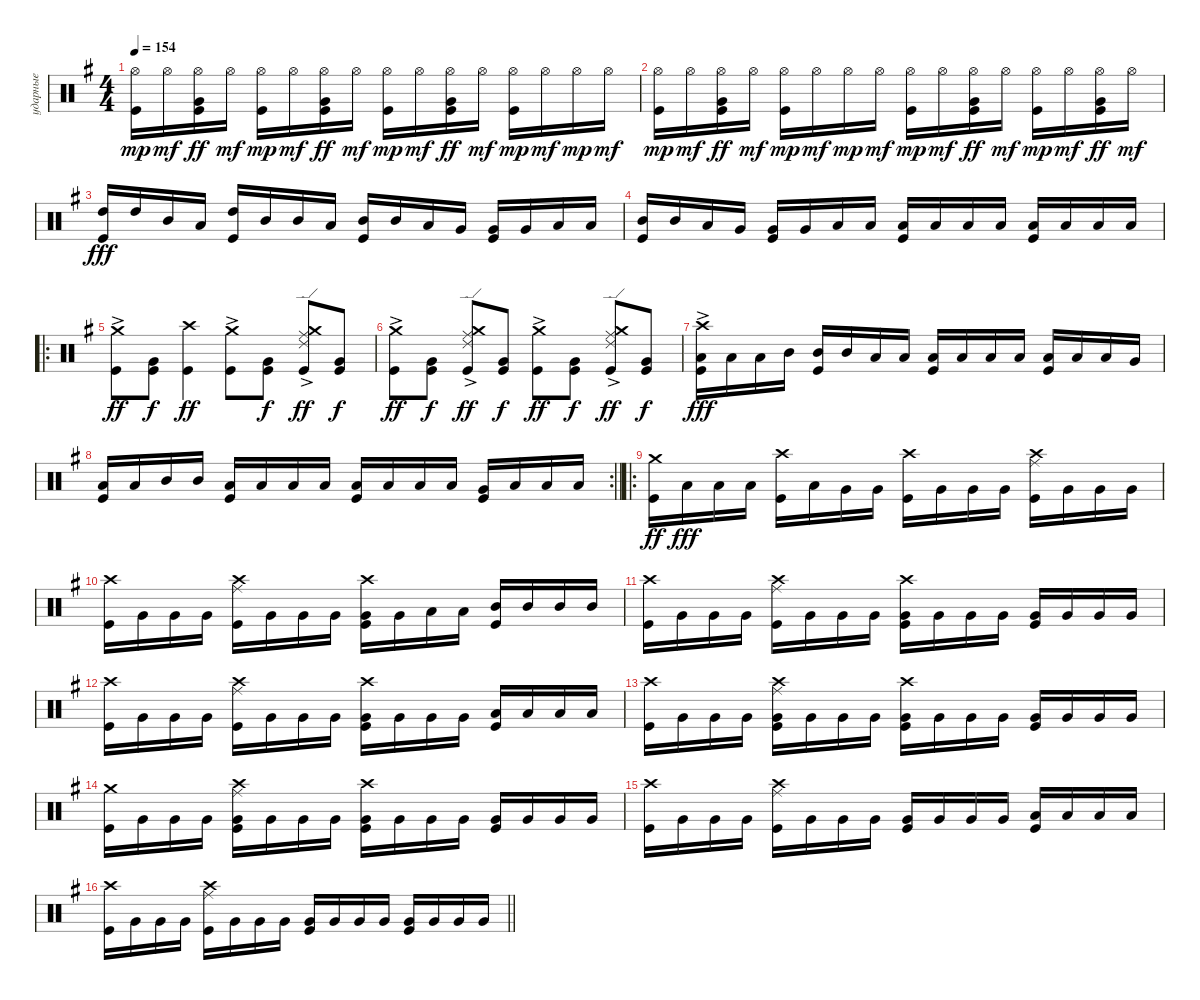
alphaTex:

\track ("ударные" "ударные") {instrument percussion}
\staff {score}
\articulation defaults
\ts (4 4)
\tempo 154
\clef neutral
\ks eminor
("Kick (hit)" "Hi-Hat (open)").16{dy mp} "Hi-Hat (open)".16{dy mf} ("Very Low Tom (hit)" "Hi-Hat (open)" "Kick (hit)").16{dy ff} "Hi-Hat (open)".16{dy mf} ("Kick (hit)" "Hi-Hat (open)").16{dy mp} "Hi-Hat (open)".16{dy mf} ("Very Low Tom (hit)" "Hi-Hat (open)" "Kick (hit)").16{dy ff} "Hi-Hat (open)".16{dy mf} ("Kick (hit)" "Hi-Hat (open)").16{dy mp} "Hi-Hat (open)".16{dy mf} ("Very Low Tom (hit)" "Hi-Hat (open)" "Kick (hit)").16{dy ff} "Hi-Hat (open)".16{dy mf} ("Kick (hit)" "Hi-Hat (open)").16{dy mp} "Hi-Hat (open)".16{dy mf} "Hi-Hat (open)".16{dy mp} "Hi-Hat (open)".16{dy mf} |
("Kick (hit)" "Hi-Hat (open)").16{dy mp} "Hi-Hat (open)".16{dy mf} ("Very Low Tom (hit)" "Hi-Hat (open)" "Kick (hit)").16{dy ff} "Hi-Hat (open)".16{dy mf} ("Kick (hit)" "Hi-Hat (open)").16{dy mp} "Hi-Hat (open)".16{dy mf} "Hi-Hat (open)".16{dy mp} "Hi-Hat (open)".16{dy mf} ("Kick (hit)" "Hi-Hat (open)").16{dy mp} "Hi-Hat (open)".16{dy mf} ("Very Low Tom (hit)" "Hi-Hat (open)" "Kick (hit)").16{dy ff} "Hi-Hat (open)".16{dy mf} ("Kick (hit)" "Hi-Hat (open)").16{dy mp} "Hi-Hat (open)".16{dy mf} ("Very Low Tom (hit)" "Hi-Hat (open)" "Kick (hit)").16{dy ff} "Hi-Hat (open)".16{dy mf} |
("High Tom (hit)" "Kick (hit)").16{dy fff} "High Tom (hit)".16 "Mid Tom (hit)".16 "Low Tom (hit)".16 ("High Tom (hit)" "Kick (hit)").16 "Mid Tom (hit)".16 "Mid Tom (hit)".16 "Low Tom (hit)".16 ("Mid Tom (hit)" "Kick (hit)").16 "Mid Tom (hit)".16 "Low Tom (hit)".16 "Very Low Tom (hit)".16 ("Very Low Tom (hit)" "Kick (hit)").16 "Very Low Tom (hit)".16 "Low Floor Tom (hit)".16 "Low Floor Tom (hit)".16 |
("Mid Tom (hit)" "Kick (hit)").16 "Mid Tom (hit)".16 "Low Tom (hit)".16 "Very Low Tom (hit)".16 ("Very Low Tom (hit)" "Kick (hit)").16 "Very Low Tom (hit)".16 "Low Floor Tom (hit)".16 "Low Floor Tom (hit)".16 ("Low Floor Tom (hit)" "Kick (hit)").16 "Low Floor Tom (hit)".16 "Low Floor Tom (hit)".16 "Low Tom (hit)".16 ("Low Tom (hit)" "Kick (hit)").16 "Low Tom (hit)".16 "Low Tom (hit)".16 "Low Tom (hit)".16 |
\ro
("Kick (hit)" "Crash medium (hit)"{ac}).8{dy ff} ("Kick (hit)" "Very Low Tom (hit)").8{dy f} ("Kick (hit)" "Crash high (hit)").4{dy ff} ("Kick (hit)" "Crash medium (hit)"{ac}).8 ("Kick (hit)" "Very Low Tom (hit)").8{dy f} ("Kick (hit)" "Crash medium (hit)"{ac} "Ride (middle)" "Ride (edge) 2").8{dy ff} ("Kick (hit)" "Very Low Tom (hit)").8{dy f} |
("Kick (hit)" "Crash medium (hit)"{ac}).8{dy ff} ("Kick (hit)" "Very Low Tom (hit)").8{dy f} ("Kick (hit)" "Crash medium (hit)"{ac} "Ride (middle)" "Ride (edge) 2").8{dy ff} ("Kick (hit)" "Very Low Tom (hit)").8{dy f} ("Kick (hit)" "Crash medium (hit)"{ac}).8{dy ff} ("Kick (hit)" "Very Low Tom (hit)").8{dy f} ("Kick (hit)" "Crash medium (hit)"{ac} "Ride (middle)" "Ride (edge) 2").8{dy ff} ("Kick (hit)" "Very Low Tom (hit)").8{dy f} |
("Kick (hit)" "Low Floor Tom (hit)" "Crash high (hit)"{ac}).16{dy fff} "Low Tom (hit)".16 "Low Tom (hit)".16 "Mid Tom (hit)".16 ("Kick (hit)" "Mid Tom (hit)").16 "Mid Tom (hit)".16 "Low Tom (hit)".16 "Low Tom (hit)".16 ("Low Floor Tom (hit)" "Kick (hit)").16 "Low Floor Tom (hit)".16 "Low Floor Tom (hit)".16 "Low Floor Tom (hit)".16 ("Kick (hit)" "Low Floor Tom (hit)").16 "Low Floor Tom (hit)".16 "Low Floor Tom (hit)".16 "Very Low Tom (hit)".16 |
\rc 2
\barLineRight lightlight
("Kick (hit)" "Low Tom (hit)").16 "Low Tom (hit)".16 "Mid Tom (hit)".16 "Mid Tom (hit)".16 ("Kick (hit)" "Low Tom (hit)").16 "Low Tom (hit)".16 "Low Tom (hit)".16 "Low Tom (hit)".16 ("Kick (hit)" "Low Floor Tom (hit)").16 "Low Floor Tom (hit)".16 "Low Floor Tom (hit)".16 "Low Tom (hit)".16 ("Kick (hit)" "Very Low Tom (hit)").16 "Low Floor Tom (hit)".16 "Low Floor Tom (hit)".16 "Low Floor Tom (hit)".16 |
\ro
\section ("" "")
("Kick (hit)" "Crash medium (hit)").16{dy ff} "Low Tom (hit)".16{dy fff} "Low Tom (hit)".16 "Low Tom (hit)".16 ("Kick (hit)" "Crash high (hit)").16 "Low Tom (hit)".16 "Very Low Tom (hit)".16 "Very Low Tom (hit)".16 ("Kick (hit)" "Crash high (hit)").16 "Very Low Tom (hit)".16 "Very Low Tom (hit)".16 "Very Low Tom (hit)".16 ("Kick (hit)" "Crash high (hit)" "Ride (middle)").16 "Very Low Tom (hit)".16 "Very Low Tom (hit)".16 "Very Low Tom (hit)".16 |
("Kick (hit)" "Crash high (hit)").16 "Very Low Tom (hit)".16 "Very Low Tom (hit)".16 "Very Low Tom (hit)".16 ("Kick (hit)" "Crash high (hit)" "Ride (middle)").16 "Very Low Tom (hit)".16 "Very Low Tom (hit)".16 "Very Low Tom (hit)".16 ("Kick (hit)" "Crash high (hit)" "Very Low Tom (hit)").16 "Very Low Tom (hit)".16 "Low Tom (hit)".16 "Low Tom (hit)".16 ("Mid Tom (hit)" "Kick (hit)").16 "Mid Tom (hit)".16 "Mid Tom (hit)".16 "Mid Tom (hit)".16 |
("Kick (hit)" "Crash high (hit)").16 "Very Low Tom (hit)".16 "Very Low Tom (hit)".16 "Very Low Tom (hit)".16 ("Kick (hit)" "Crash high (hit)" "Ride (middle)").16 "Very Low Tom (hit)".16 "Very Low Tom (hit)".16 "Very Low Tom (hit)".16 ("Kick (hit)" "Crash high (hit)" "Very Low Tom (hit)").16 "Very Low Tom (hit)".16 "Very Low Tom (hit)".16 "Very Low Tom (hit)".16 ("Kick (hit)" "Very Low Tom (hit)").16 "Very Low Tom (hit)".16 "Very Low Tom (hit)".16 "Very Low Tom (hit)".16 |
("Kick (hit)" "Crash high (hit)").16 "Very Low Tom (hit)".16 "Very Low Tom (hit)".16 "Very Low Tom (hit)".16 ("Kick (hit)" "Crash high (hit)" "Ride (middle)").16 "Very Low Tom (hit)".16 "Very Low Tom (hit)".16 "Very Low Tom (hit)".16 ("Kick (hit)" "Crash high (hit)" "Very Low Tom (hit)").16 "Very Low Tom (hit)".16 "Very Low Tom (hit)".16 "Very Low Tom (hit)".16 ("Kick (hit)" "Low Tom (hit)").16 "Low Tom (hit)".16 "Low Tom (hit)".16 "Low Tom (hit)".16 |
("Kick (hit)" "Crash high (hit)").16 "Very Low Tom (hit)".16 "Very Low Tom (hit)".16 "Very Low Tom (hit)".16 ("Kick (hit)" "Crash high (hit)" "Ride (middle)" "Very Low Tom (hit)").16 "Very Low Tom (hit)".16 "Very Low Tom (hit)".16 "Very Low Tom (hit)".16 ("Kick (hit)" "Crash high (hit)" "Very Low Tom (hit)").16 "Very Low Tom (hit)".16 "Very Low Tom (hit)".16 "Very Low Tom (hit)".16 ("Kick (hit)" "Very Low Tom (hit)").16 "Very Low Tom (hit)".16 "Very Low Tom (hit)".16 "Very Low Tom (hit)".16 |
("Kick (hit)" "Crash medium (hit)").16 "Very Low Tom (hit)".16 "Very Low Tom (hit)".16 "Very Low Tom (hit)".16 ("Kick (hit)" "Crash high (hit)" "Ride (middle)" "Very Low Tom (hit)").16 "Very Low Tom (hit)".16 "Very Low Tom (hit)".16 "Very Low Tom (hit)".16 ("Kick (hit)" "Crash high (hit)" "Very Low Tom (hit)").16 "Very Low Tom (hit)".16 "Very Low Tom (hit)".16 "Very Low Tom (hit)".16 ("Kick (hit)" "Very Low Tom (hit)").16 "Very Low Tom (hit)".16 "Very Low Tom (hit)".16 "Very Low Tom (hit)".16 |
("Kick (hit)" "Crash high (hit)").16 "Very Low Tom (hit)".16 "Very Low Tom (hit)".16 "Very Low Tom (hit)".16 ("Kick (hit)" "Crash high (hit)" "Ride (middle)").16 "Very Low Tom (hit)".16 "Very Low Tom (hit)".16 "Very Low Tom (hit)".16 ("Kick (hit)" "Very Low Tom (hit)").16 "Very Low Tom (hit)".16 "Very Low Tom (hit)".16 "Very Low Tom (hit)".16 ("Kick (hit)" "Low Tom (hit)").16 "Low Tom (hit)".16 "Low Tom (hit)".16 "Low Tom (hit)".16 |
\barLineRight lightlight
("Kick (hit)" "Crash high (hit)").16 "Very Low Tom (hit)".16 "Very Low Tom (hit)".16 "Very Low Tom (hit)".16 ("Kick (hit)" "Crash high (hit)" "Ride (middle)").16 "Very Low Tom (hit)".16 "Very Low Tom (hit)".16 "Very Low Tom (hit)".16 ("Kick (hit)" "Very Low Tom (hit)").16 "Very Low Tom (hit)".16 "Very Low Tom (hit)".16 "Very Low Tom (hit)".16 ("Kick (hit)" "Very Low Tom (hit)").16 "Very Low Tom (hit)".16 "Very Low Tom (hit)".16 "Very Low Tom (hit)".16
